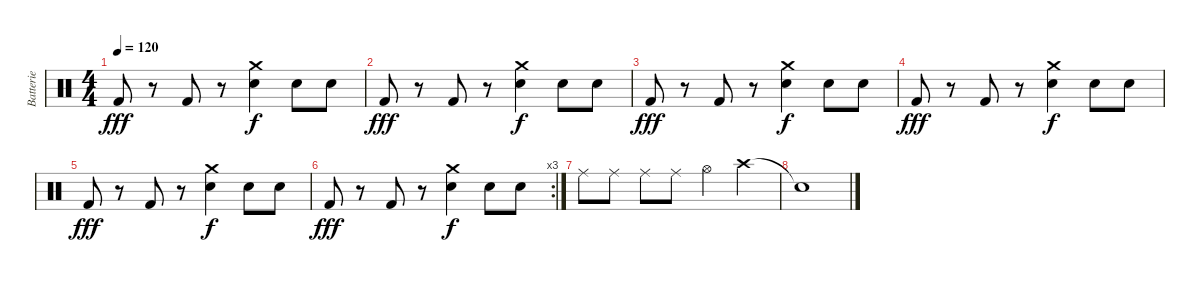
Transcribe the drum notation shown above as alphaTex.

\track ("Batterie" "Batterie") {instrument percussion}
\staff {score}
\articulation defaults
\ts (4 4)
\tempo 120
\clef neutral
\ks c "Kick (hit) 2".8{dy fff}
r.8 "Kick (hit) 2".8 r.8 ("Snare (hit) 2" "Crash medium (hit)").4{dy f} "Snare (hit) 2".8 "Snare (hit) 2".8 |
"Kick (hit) 2".8{dy fff} r.8 "Kick (hit) 2".8 r.8 ("Snare (hit) 2" "Crash medium (hit)").4{dy f} "Snare (hit) 2".8 "Snare (hit) 2".8 |
"Kick (hit) 2".8{dy fff} r.8 "Kick (hit) 2".8 r.8 ("Snare (hit) 2" "Crash medium (hit)").4{dy f} "Snare (hit) 2".8 "Snare (hit) 2".8 |
"Kick (hit) 2".8{dy fff} r.8 "Kick (hit) 2".8 r.8 ("Snare (hit) 2" "Crash medium (hit)").4{dy f} "Snare (hit) 2".8 "Snare (hit) 2".8 |
"Kick (hit) 2".8{dy fff} r.8 "Kick (hit) 2".8 r.8 ("Snare (hit) 2" "Crash medium (hit)").4{dy f} "Snare (hit) 2".8 "Snare (hit) 2".8 |
\rc 3 "Kick (hit) 2".8{dy fff}
r.8 "Kick (hit) 2".8 r.8 ("Snare (hit) 2" "Crash medium (hit)").4{dy f} "Snare (hit) 2".8 "Snare (hit) 2".8 |
"Ride (middle)".8 "Ride (middle)".8 "Ride (middle)".8 "Ride (middle)".8 "Hi-Hat (open)".4 "Crash high (hit)".4 |
"Snare (hit)"{t}.1
